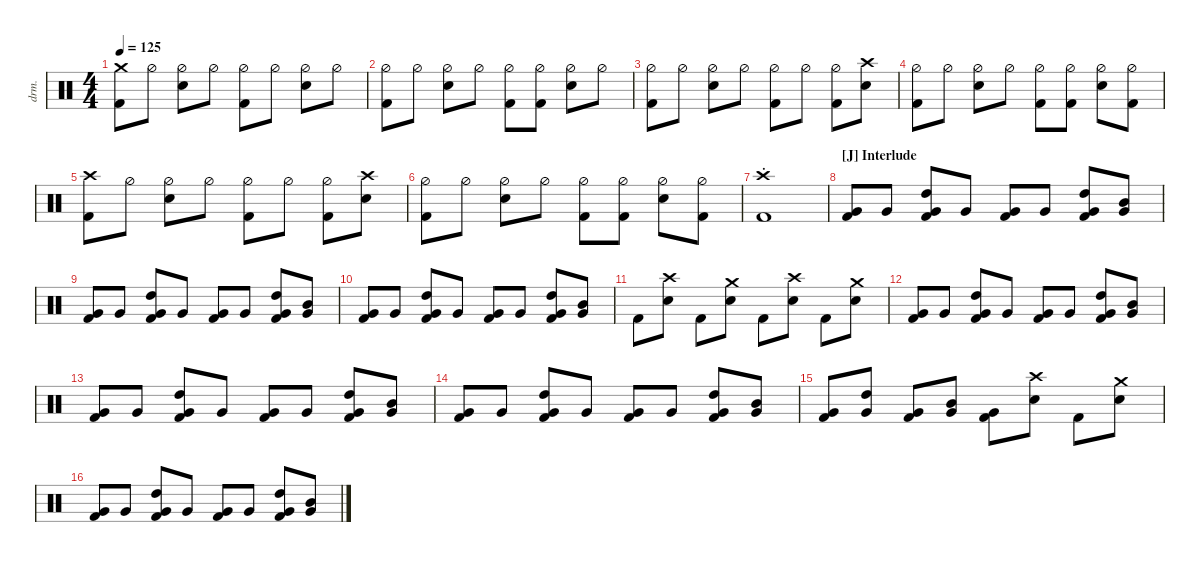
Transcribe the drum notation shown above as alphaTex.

\defaultSystemsLayout 4
\hideDynamics
\bracketExtendMode nobrackets
\otherSystemsTrackNameOrientation horizontal
\track ("Drums" "drm.") {defaultSystemsLayout 4 multiBarRest instrument percussion}
\staff
\articulation defaults
\ts (4 4)
\tempo 125
\clef neutral
\ks c
("Kick (hit) 2" "Crash medium (hit)").8{dy f} "Hi-Hat (half)".8 ("Hi-Hat (half)" "Snare (hit) 2").8 "Hi-Hat (half)".8 ("Hi-Hat (half)" "Kick (hit) 2").8 "Hi-Hat (half)".8 ("Hi-Hat (half)" "Snare (hit) 2").8 "Hi-Hat (half)".8 |
("Hi-Hat (half)" "Kick (hit) 2").8 "Hi-Hat (half)".8 ("Hi-Hat (half)" "Snare (hit) 2").8 "Hi-Hat (half)".8 ("Hi-Hat (half)" "Kick (hit) 2").8 ("Hi-Hat (half)" "Kick (hit) 2").8 ("Hi-Hat (half)" "Snare (hit) 2").8 "Hi-Hat (half)".8 |
("Hi-Hat (half)" "Kick (hit) 2").8 "Hi-Hat (half)".8 ("Hi-Hat (half)" "Snare (hit) 2").8 "Hi-Hat (half)".8 ("Hi-Hat (half)" "Kick (hit) 2").8 "Hi-Hat (half)".8 ("Hi-Hat (half)" "Kick (hit) 2").8 ("Snare (hit) 2" "Crash high (hit)").8 |
("Hi-Hat (half)" "Kick (hit) 2").8 "Hi-Hat (half)".8 ("Hi-Hat (half)" "Snare (hit) 2").8 "Hi-Hat (half)".8 ("Hi-Hat (half)" "Kick (hit) 2").8 ("Hi-Hat (half)" "Kick (hit) 2").8 ("Hi-Hat (half)" "Snare (hit) 2").8 ("Hi-Hat (half)" "Kick (hit) 2").8 |
("Kick (hit) 2" "Crash high (hit)").8 "Hi-Hat (half)".8 ("Hi-Hat (half)" "Snare (hit) 2").8 "Hi-Hat (half)".8 ("Hi-Hat (half)" "Kick (hit) 2").8 "Hi-Hat (half)".8 ("Hi-Hat (half)" "Kick (hit) 2").8 ("Snare (hit) 2" "Crash high (hit)").8 |
("Hi-Hat (half)" "Kick (hit) 2").8 "Hi-Hat (half)".8 ("Hi-Hat (half)" "Snare (hit) 2").8 "Hi-Hat (half)".8 ("Hi-Hat (half)" "Kick (hit) 2").8 ("Hi-Hat (half)" "Kick (hit) 2").8 ("Hi-Hat (half)" "Snare (hit) 2").8 ("Hi-Hat (half)" "Kick (hit) 2").8 |
("Kick (hit) 2" "Crash high (hit)"{st}).1 |
\section ("J" "Interlude")
("Kick (hit) 2" "Very Low Tom (hit)").8{dy ff} "Very Low Tom (hit)".8 ("Very Low Tom (hit)" "Kick (hit) 2" "High Tom (hit)").8 "Very Low Tom (hit)".8 ("Very Low Tom (hit)" "Kick (hit) 2").8 "Very Low Tom (hit)".8 ("Very Low Tom (hit)" "Kick (hit) 2" "High Tom (hit)").8 ("Very Low Tom (hit)" "Mid Tom (hit)").8 |
("Kick (hit) 2" "Very Low Tom (hit)").8 "Very Low Tom (hit)".8 ("Very Low Tom (hit)" "Kick (hit) 2" "High Tom (hit)").8 "Very Low Tom (hit)".8 ("Very Low Tom (hit)" "Kick (hit) 2").8 "Very Low Tom (hit)".8 ("Very Low Tom (hit)" "Kick (hit) 2" "High Tom (hit)").8 ("Very Low Tom (hit)" "Mid Tom (hit)").8 |
("Kick (hit) 2" "Very Low Tom (hit)").8 "Very Low Tom (hit)".8 ("Very Low Tom (hit)" "Kick (hit) 2" "High Tom (hit)").8 "Very Low Tom (hit)".8 ("Very Low Tom (hit)" "Kick (hit) 2").8 "Very Low Tom (hit)".8 ("Very Low Tom (hit)" "Kick (hit) 2" "High Tom (hit)").8 ("Very Low Tom (hit)" "Mid Tom (hit)").8 |
"Kick (hit) 2".8{dy f} ("Snare (hit) 2" "Crash high (hit)").8 "Kick (hit) 2".8 ("Snare (hit) 2" "Crash medium (hit)").8 "Kick (hit) 2".8 ("Snare (hit) 2" "Crash high (hit)").8 "Kick (hit) 2".8 ("Snare (hit) 2" "Crash medium (hit)").8 |
("Kick (hit) 2" "Very Low Tom (hit)").8{dy ff} "Very Low Tom (hit)".8 ("Very Low Tom (hit)" "Kick (hit) 2" "High Tom (hit)").8 "Very Low Tom (hit)".8 ("Very Low Tom (hit)" "Kick (hit) 2").8 "Very Low Tom (hit)".8 ("Very Low Tom (hit)" "Kick (hit) 2" "High Tom (hit)").8 ("Very Low Tom (hit)" "Mid Tom (hit)").8 |
("Kick (hit) 2" "Very Low Tom (hit)").8 "Very Low Tom (hit)".8 ("Very Low Tom (hit)" "Kick (hit) 2" "High Tom (hit)").8 "Very Low Tom (hit)".8 ("Very Low Tom (hit)" "Kick (hit) 2").8 "Very Low Tom (hit)".8 ("Very Low Tom (hit)" "Kick (hit) 2" "High Tom (hit)").8 ("Very Low Tom (hit)" "Mid Tom (hit)").8 |
("Kick (hit) 2" "Very Low Tom (hit)").8 "Very Low Tom (hit)".8 ("Very Low Tom (hit)" "Kick (hit) 2" "High Tom (hit)").8 "Very Low Tom (hit)".8 ("Very Low Tom (hit)" "Kick (hit) 2").8 "Very Low Tom (hit)".8 ("Very Low Tom (hit)" "Kick (hit) 2" "High Tom (hit)").8 ("Very Low Tom (hit)" "Mid Tom (hit)").8 |
("Kick (hit) 2" "Very Low Tom (hit)").8 ("Very Low Tom (hit)" "High Tom (hit)").8 ("Very Low Tom (hit)" "Kick (hit) 2").8 ("Very Low Tom (hit)" "Mid Tom (hit)").8 ("Very Low Tom (hit)" "Kick (hit) 2").8 ("Snare (hit) 2" "Crash high (hit)").8{dy f} "Kick (hit) 2".8 ("Snare (hit) 2" "Crash medium (hit)").8 |
("Kick (hit) 2" "Very Low Tom (hit)").8{dy ff} "Very Low Tom (hit)".8 ("Very Low Tom (hit)" "Kick (hit) 2" "High Tom (hit)").8 "Very Low Tom (hit)".8 ("Very Low Tom (hit)" "Kick (hit) 2").8 "Very Low Tom (hit)".8 ("Very Low Tom (hit)" "Kick (hit) 2" "High Tom (hit)").8 ("Very Low Tom (hit)" "Mid Tom (hit)").8
